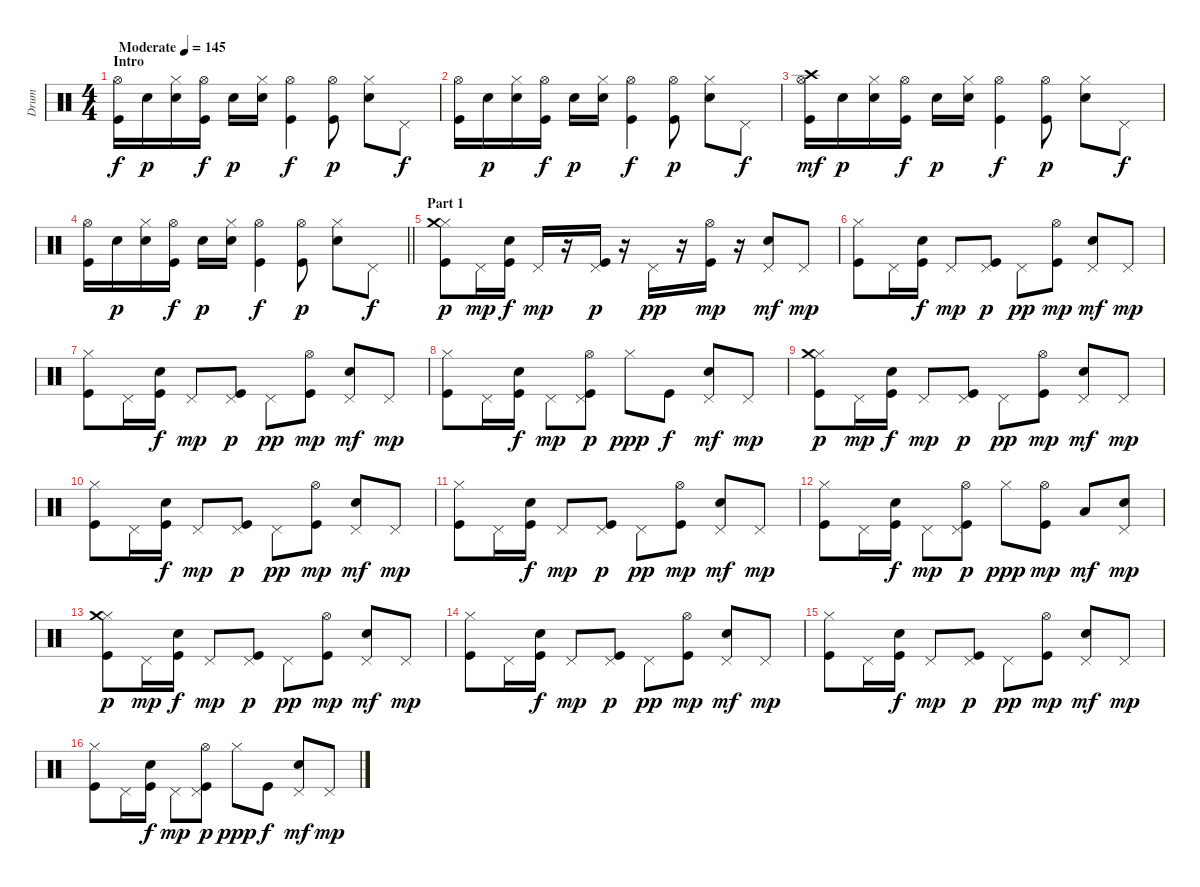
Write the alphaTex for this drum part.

\track ("Drum" "Drum") {instrument percussion}
\staff {score}
\articulation defaults
\ts (4 4)
\section ("" "Intro")
\tempo (145 "Moderate")
\clef neutral
\ks c
("Hi-Hat (open)" "Kick (hit)").16{dy f} "Electric Snare (hit)".16{dy p} ("Hi-Hat (closed)" "Electric Snare (hit)").16 ("Hi-Hat (open)" "Kick (hit)").16{dy f} "Electric Snare (hit)".16{dy p} ("Hi-Hat (closed)" "Electric Snare (hit)").16 ("Hi-Hat (open)" "Kick (hit)").4{dy f} ("Hi-Hat (open)" "Kick (hit)").8{dy p} ("Hi-Hat (closed)" "Electric Snare (hit)").8 "Pedal Hi-Hat (hit)".8{dy f} |
("Hi-Hat (open)" "Kick (hit)").16 "Electric Snare (hit)".16{dy p} ("Hi-Hat (closed)" "Electric Snare (hit)").16 ("Hi-Hat (open)" "Kick (hit)").16{dy f} "Electric Snare (hit)".16{dy p} ("Hi-Hat (closed)" "Electric Snare (hit)").16 ("Hi-Hat (open)" "Kick (hit)").4{dy f} ("Hi-Hat (open)" "Kick (hit)").8{dy p} ("Hi-Hat (closed)" "Electric Snare (hit)").8 "Pedal Hi-Hat (hit)".8{dy f} |
("Hi-Hat (open)" "Crash high (hit)" "Kick (hit)").16{dy mf} "Electric Snare (hit)".16{dy p} ("Hi-Hat (closed)" "Electric Snare (hit)").16 ("Hi-Hat (open)" "Kick (hit)").16{dy f} "Electric Snare (hit)".16{dy p} ("Hi-Hat (closed)" "Electric Snare (hit)").16 ("Hi-Hat (open)" "Kick (hit)").4{dy f} ("Hi-Hat (open)" "Kick (hit)").8{dy p} ("Hi-Hat (closed)" "Electric Snare (hit)").8 "Pedal Hi-Hat (hit)".8{dy f} |
\barLineRight lightlight
("Hi-Hat (open)" "Kick (hit)").16 "Electric Snare (hit)".16{dy p} ("Hi-Hat (closed)" "Electric Snare (hit)").16 ("Hi-Hat (open)" "Kick (hit)").16{dy f} "Electric Snare (hit)".16{dy p} ("Hi-Hat (closed)" "Electric Snare (hit)").16 ("Hi-Hat (open)" "Kick (hit)").4{dy f} ("Hi-Hat (open)" "Kick (hit)").8{dy p} ("Hi-Hat (closed)" "Electric Snare (hit)").8 "Pedal Hi-Hat (hit)".8{dy f} |
\section ("" "Part 1")
("Hi-Hat (closed)" "Crash medium (hit)" "Kick (hit)").8{dy p} "Pedal Hi-Hat (hit)".16{dy mp} ("Electric Snare (hit)" "Kick (hit)").16{dy f} "Pedal Hi-Hat (hit)".16{dy mp} r.16 ("Pedal Hi-Hat (hit)" "Kick (hit)").16{dy p} r.16 "Pedal Hi-Hat (hit)".16{dy pp} r.16 ("Hi-Hat (open)" "Kick (hit)").16{dy mp} r.16 ("Pedal Hi-Hat (hit)" "Electric Snare (hit)").8{dy mf} "Pedal Hi-Hat (hit)".8{dy mp} |
("Hi-Hat (closed)" "Kick (hit)").8 "Pedal Hi-Hat (hit)".16 ("Electric Snare (hit)" "Kick (hit)").16{dy f} "Pedal Hi-Hat (hit)".8{dy mp} ("Pedal Hi-Hat (hit)" "Kick (hit)").8{dy p} "Pedal Hi-Hat (hit)".8{dy pp} ("Hi-Hat (open)" "Kick (hit)").8{dy mp} ("Pedal Hi-Hat (hit)" "Electric Snare (hit)").8{dy mf} "Pedal Hi-Hat (hit)".8{dy mp} |
("Hi-Hat (closed)" "Kick (hit)").8 "Pedal Hi-Hat (hit)".16 ("Electric Snare (hit)" "Kick (hit)").16{dy f} "Pedal Hi-Hat (hit)".8{dy mp} ("Pedal Hi-Hat (hit)" "Kick (hit)").8{dy p} "Pedal Hi-Hat (hit)".8{dy pp} ("Hi-Hat (open)" "Kick (hit)").8{dy mp} ("Pedal Hi-Hat (hit)" "Electric Snare (hit)").8{dy mf} "Pedal Hi-Hat (hit)".8{dy mp} |
("Hi-Hat (closed)" "Kick (hit)").8 "Pedal Hi-Hat (hit)".16 ("Electric Snare (hit)" "Kick (hit)").16{dy f} "Pedal Hi-Hat (hit)".8{dy mp} ("Pedal Hi-Hat (hit)" "Hi-Hat (open)" "Kick (hit)").8{dy p} "Hi-Hat (closed)".8{dy ppp} "Kick (hit)".8{dy f} ("Pedal Hi-Hat (hit)" "Electric Snare (hit)").8{dy mf} "Pedal Hi-Hat (hit)".8{dy mp} |
("Hi-Hat (closed)" "Crash medium (hit)" "Kick (hit)").8{dy p} "Pedal Hi-Hat (hit)".16{dy mp} ("Electric Snare (hit)" "Kick (hit)").16{dy f} "Pedal Hi-Hat (hit)".8{dy mp} ("Pedal Hi-Hat (hit)" "Kick (hit)").8{dy p} "Pedal Hi-Hat (hit)".8{dy pp} ("Hi-Hat (open)" "Kick (hit)").8{dy mp} ("Pedal Hi-Hat (hit)" "Electric Snare (hit)").8{dy mf} "Pedal Hi-Hat (hit)".8{dy mp} |
("Hi-Hat (closed)" "Kick (hit)").8 "Pedal Hi-Hat (hit)".16 ("Electric Snare (hit)" "Kick (hit)").16{dy f} "Pedal Hi-Hat (hit)".8{dy mp} ("Pedal Hi-Hat (hit)" "Kick (hit)").8{dy p} "Pedal Hi-Hat (hit)".8{dy pp} ("Hi-Hat (open)" "Kick (hit)").8{dy mp} ("Pedal Hi-Hat (hit)" "Electric Snare (hit)").8{dy mf} "Pedal Hi-Hat (hit)".8{dy mp} |
("Hi-Hat (closed)" "Kick (hit)").8 "Pedal Hi-Hat (hit)".16 ("Electric Snare (hit)" "Kick (hit)").16{dy f} "Pedal Hi-Hat (hit)".8{dy mp} ("Pedal Hi-Hat (hit)" "Kick (hit)").8{dy p} "Pedal Hi-Hat (hit)".8{dy pp} ("Hi-Hat (open)" "Kick (hit)").8{dy mp} ("Pedal Hi-Hat (hit)" "Electric Snare (hit)").8{dy mf} "Pedal Hi-Hat (hit)".8{dy mp} |
("Hi-Hat (closed)" "Kick (hit)").8 "Pedal Hi-Hat (hit)".16 ("Electric Snare (hit)" "Kick (hit)").16{dy f} "Pedal Hi-Hat (hit)".8{dy mp} ("Pedal Hi-Hat (hit)" "Hi-Hat (open)" "Kick (hit)").8{dy p} "Hi-Hat (closed)".8{dy ppp} ("Hi-Hat (open)" "Kick (hit)").8{dy mp} "Low Tom (hit)".8{dy mf} ("Pedal Hi-Hat (hit)" "Snare (hit) 2").8{dy mp} |
("Hi-Hat (closed)" "Crash medium (hit)" "Kick (hit)").8{dy p} "Pedal Hi-Hat (hit)".16{dy mp} ("Electric Snare (hit)" "Kick (hit)").16{dy f} "Pedal Hi-Hat (hit)".8{dy mp} ("Pedal Hi-Hat (hit)" "Kick (hit)").8{dy p} "Pedal Hi-Hat (hit)".8{dy pp} ("Hi-Hat (open)" "Kick (hit)").8{dy mp} ("Pedal Hi-Hat (hit)" "Electric Snare (hit)").8{dy mf} "Pedal Hi-Hat (hit)".8{dy mp} |
("Hi-Hat (closed)" "Kick (hit)").8 "Pedal Hi-Hat (hit)".16 ("Electric Snare (hit)" "Kick (hit)").16{dy f} "Pedal Hi-Hat (hit)".8{dy mp} ("Pedal Hi-Hat (hit)" "Kick (hit)").8{dy p} "Pedal Hi-Hat (hit)".8{dy pp} ("Hi-Hat (open)" "Kick (hit)").8{dy mp} ("Pedal Hi-Hat (hit)" "Electric Snare (hit)").8{dy mf} "Pedal Hi-Hat (hit)".8{dy mp} |
("Hi-Hat (closed)" "Kick (hit)").8 "Pedal Hi-Hat (hit)".16 ("Electric Snare (hit)" "Kick (hit)").16{dy f} "Pedal Hi-Hat (hit)".8{dy mp} ("Pedal Hi-Hat (hit)" "Kick (hit)").8{dy p} "Pedal Hi-Hat (hit)".8{dy pp} ("Hi-Hat (open)" "Kick (hit)").8{dy mp} ("Pedal Hi-Hat (hit)" "Electric Snare (hit)").8{dy mf} "Pedal Hi-Hat (hit)".8{dy mp} |
("Hi-Hat (closed)" "Kick (hit)").8 "Pedal Hi-Hat (hit)".16 ("Electric Snare (hit)" "Kick (hit)").16{dy f} "Pedal Hi-Hat (hit)".8{dy mp} ("Pedal Hi-Hat (hit)" "Hi-Hat (open)" "Kick (hit)").8{dy p} "Hi-Hat (closed)".8{dy ppp} "Kick (hit)".8{dy f} ("Pedal Hi-Hat (hit)" "Electric Snare (hit)").8{dy mf} "Pedal Hi-Hat (hit)".8{dy mp}
